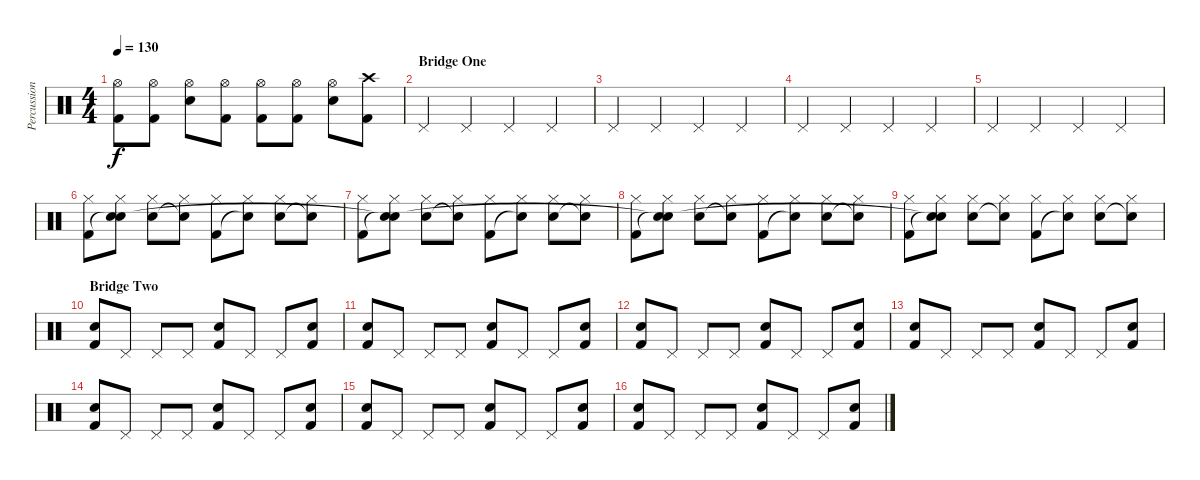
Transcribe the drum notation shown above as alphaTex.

\track ("Percussion" "Percussion") {instrument percussion}
\staff {score}
\articulation defaults
\ts (4 4)
\tempo 130
\clef neutral
\ks c
("Hi-Hat (open)" "Kick (hit) 2").8{dy f} ("Hi-Hat (open)" "Kick (hit) 2").8 ("Hi-Hat (open)" "Electric Snare (hit)").8 ("Hi-Hat (open)" "Kick (hit) 2").8 ("Hi-Hat (open)" "Kick (hit) 2").8 ("Hi-Hat (open)" "Kick (hit) 2").8 ("Hi-Hat (open)" "Electric Snare (hit)").8 ("Crash high (hit)" "Kick (hit) 2").8 |
\section ("" "Bridge One")
"Pedal Hi-Hat (hit)".4 "Pedal Hi-Hat (hit)".4 "Pedal Hi-Hat (hit)".4 "Pedal Hi-Hat (hit)".4 |
"Pedal Hi-Hat (hit)".4 "Pedal Hi-Hat (hit)".4 "Pedal Hi-Hat (hit)".4 "Pedal Hi-Hat (hit)".4 |
"Pedal Hi-Hat (hit)".4 "Pedal Hi-Hat (hit)".4 "Pedal Hi-Hat (hit)".4 "Pedal Hi-Hat (hit)".4 |
"Pedal Hi-Hat (hit)".4 "Pedal Hi-Hat (hit)".4 "Pedal Hi-Hat (hit)".4 "Pedal Hi-Hat (hit)".4 |
("Hi-Hat (closed)" "Kick (hit) 2").8 ("Hi-Hat (closed)" "Electric Snare (hit)"{t} "Snare (hit)").8 ("Hi-Hat (closed)" "Electric Snare (hit)").8 ("Hi-Hat (closed)" "Electric Snare (hit)"{t}).8 ("Hi-Hat (closed)" "Kick (hit) 2").8 ("Hi-Hat (closed)" "Snare (hit)"{t}).8 ("Hi-Hat (closed)" "Electric Snare (hit)").8 ("Hi-Hat (closed)" "Snare (hit)"{t}).8 |
("Hi-Hat (closed)" "Kick (hit) 2").8 ("Hi-Hat (closed)" "Electric Snare (hit)"{t} "Snare (hit)"{t}).8 ("Hi-Hat (closed)" "Electric Snare (hit)").8 ("Hi-Hat (closed)" "Electric Snare (hit)"{t}).8 ("Hi-Hat (closed)" "Kick (hit) 2").8 ("Hi-Hat (closed)" "Snare (hit)"{t}).8 ("Hi-Hat (closed)" "Electric Snare (hit)").8 ("Hi-Hat (closed)" "Snare (hit)"{t}).8 |
("Hi-Hat (closed)" "Kick (hit) 2").8 ("Hi-Hat (closed)" "Electric Snare (hit)"{t} "Snare (hit)"{t}).8 ("Hi-Hat (closed)" "Electric Snare (hit)").8 ("Hi-Hat (closed)" "Electric Snare (hit)"{t}).8 ("Hi-Hat (closed)" "Kick (hit) 2").8 ("Hi-Hat (closed)" "Snare (hit)"{t}).8 ("Hi-Hat (closed)" "Electric Snare (hit)").8 ("Hi-Hat (closed)" "Snare (hit)"{t}).8 |
("Hi-Hat (closed)" "Kick (hit) 2").8 ("Hi-Hat (closed)" "Electric Snare (hit)"{t} "Snare (hit)"{t}).8 ("Hi-Hat (closed)" "Electric Snare (hit)").8 ("Hi-Hat (closed)" "Electric Snare (hit)"{t}).8 ("Hi-Hat (closed)" "Kick (hit) 2").8 ("Hi-Hat (closed)" "Snare (hit)"{t}).8 ("Hi-Hat (closed)" "Electric Snare (hit)").8 ("Hi-Hat (closed)" "Snare (hit)"{t}).8 |
\section ("" "Bridge Two")
("Electric Snare (hit)" "Kick (hit) 2").8 "Pedal Hi-Hat (hit)".8 "Pedal Hi-Hat (hit)".8 "Pedal Hi-Hat (hit)".8 ("Electric Snare (hit)" "Kick (hit) 2").8 "Pedal Hi-Hat (hit)".8 "Pedal Hi-Hat (hit)".8 ("Electric Snare (hit)" "Kick (hit) 2").8 |
("Electric Snare (hit)" "Kick (hit) 2").8 "Pedal Hi-Hat (hit)".8 "Pedal Hi-Hat (hit)".8 "Pedal Hi-Hat (hit)".8 ("Electric Snare (hit)" "Kick (hit) 2").8 "Pedal Hi-Hat (hit)".8 "Pedal Hi-Hat (hit)".8 ("Electric Snare (hit)" "Kick (hit) 2").8 |
("Electric Snare (hit)" "Kick (hit) 2").8 "Pedal Hi-Hat (hit)".8 "Pedal Hi-Hat (hit)".8 "Pedal Hi-Hat (hit)".8 ("Electric Snare (hit)" "Kick (hit) 2").8 "Pedal Hi-Hat (hit)".8 "Pedal Hi-Hat (hit)".8 ("Electric Snare (hit)" "Kick (hit) 2").8 |
("Electric Snare (hit)" "Kick (hit) 2").8 "Pedal Hi-Hat (hit)".8 "Pedal Hi-Hat (hit)".8 "Pedal Hi-Hat (hit)".8 ("Electric Snare (hit)" "Kick (hit) 2").8 "Pedal Hi-Hat (hit)".8 "Pedal Hi-Hat (hit)".8 ("Electric Snare (hit)" "Kick (hit) 2").8 |
("Electric Snare (hit)" "Kick (hit) 2").8 "Pedal Hi-Hat (hit)".8 "Pedal Hi-Hat (hit)".8 "Pedal Hi-Hat (hit)".8 ("Electric Snare (hit)" "Kick (hit) 2").8 "Pedal Hi-Hat (hit)".8 "Pedal Hi-Hat (hit)".8 ("Electric Snare (hit)" "Kick (hit) 2").8 |
("Electric Snare (hit)" "Kick (hit) 2").8 "Pedal Hi-Hat (hit)".8 "Pedal Hi-Hat (hit)".8 "Pedal Hi-Hat (hit)".8 ("Electric Snare (hit)" "Kick (hit) 2").8 "Pedal Hi-Hat (hit)".8 "Pedal Hi-Hat (hit)".8 ("Electric Snare (hit)" "Kick (hit) 2").8 |
("Electric Snare (hit)" "Kick (hit) 2").8 "Pedal Hi-Hat (hit)".8 "Pedal Hi-Hat (hit)".8 "Pedal Hi-Hat (hit)".8 ("Electric Snare (hit)" "Kick (hit) 2").8 "Pedal Hi-Hat (hit)".8 "Pedal Hi-Hat (hit)".8 ("Electric Snare (hit)" "Kick (hit) 2").8
